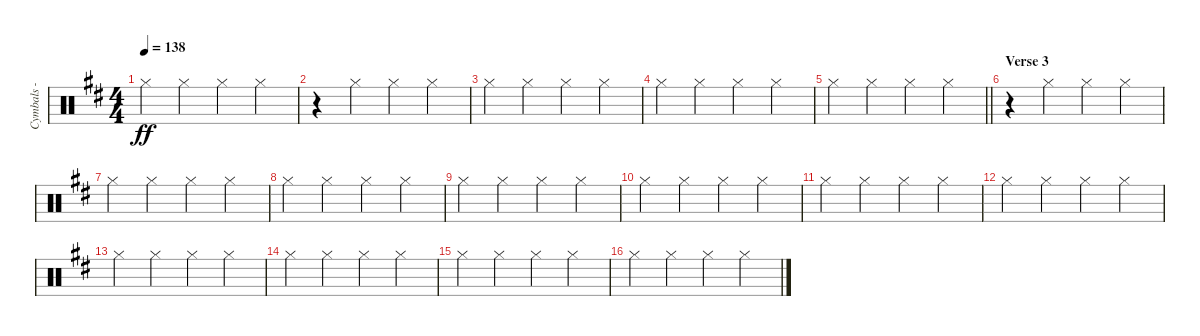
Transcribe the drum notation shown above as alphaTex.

\track ("Cymbals - hi-hat" "Cymbals - ") {instrument percussion}
\staff {score}
\articulation defaults
\ts (4 4)
\tempo 138
\clef neutral
\ks d "Hi-Hat (closed)".4{dy ff} "Hi-Hat (closed)".4 "Hi-Hat (closed)".4 "Hi-Hat (closed)".4
|
r.4 "Hi-Hat (closed)".4 "Hi-Hat (closed)".4 "Hi-Hat (closed)".4 |
"Hi-Hat (closed)".4 "Hi-Hat (closed)".4 "Hi-Hat (closed)".4 "Hi-Hat (closed)".4 |
"Hi-Hat (closed)".4 "Hi-Hat (closed)".4 "Hi-Hat (closed)".4 "Hi-Hat (closed)".4 |
\barLineRight lightlight "Hi-Hat (closed)".4 "Hi-Hat (closed)".4 "Hi-Hat (closed)".4 "Hi-Hat (closed)".4
|
\section ("" "Verse 3")
r.4 "Hi-Hat (closed)".4 "Hi-Hat (closed)".4 "Hi-Hat (closed)".4 |
"Hi-Hat (closed)".4 "Hi-Hat (closed)".4 "Hi-Hat (closed)".4 "Hi-Hat (closed)".4 |
"Hi-Hat (closed)".4 "Hi-Hat (closed)".4 "Hi-Hat (closed)".4 "Hi-Hat (closed)".4 |
"Hi-Hat (closed)".4 "Hi-Hat (closed)".4 "Hi-Hat (closed)".4 "Hi-Hat (closed)".4 |
"Hi-Hat (closed)".4 "Hi-Hat (closed)".4 "Hi-Hat (closed)".4 "Hi-Hat (closed)".4 |
"Hi-Hat (closed)".4 "Hi-Hat (closed)".4 "Hi-Hat (closed)".4 "Hi-Hat (closed)".4 |
"Hi-Hat (closed)".4 "Hi-Hat (closed)".4 "Hi-Hat (closed)".4 "Hi-Hat (closed)".4 |
"Hi-Hat (closed)".4 "Hi-Hat (closed)".4 "Hi-Hat (closed)".4 "Hi-Hat (closed)".4 |
"Hi-Hat (closed)".4 "Hi-Hat (closed)".4 "Hi-Hat (closed)".4 "Hi-Hat (closed)".4 |
"Hi-Hat (closed)".4 "Hi-Hat (closed)".4 "Hi-Hat (closed)".4 "Hi-Hat (closed)".4 |
"Hi-Hat (closed)".4 "Hi-Hat (closed)".4 "Hi-Hat (closed)".4 "Hi-Hat (closed)".4
